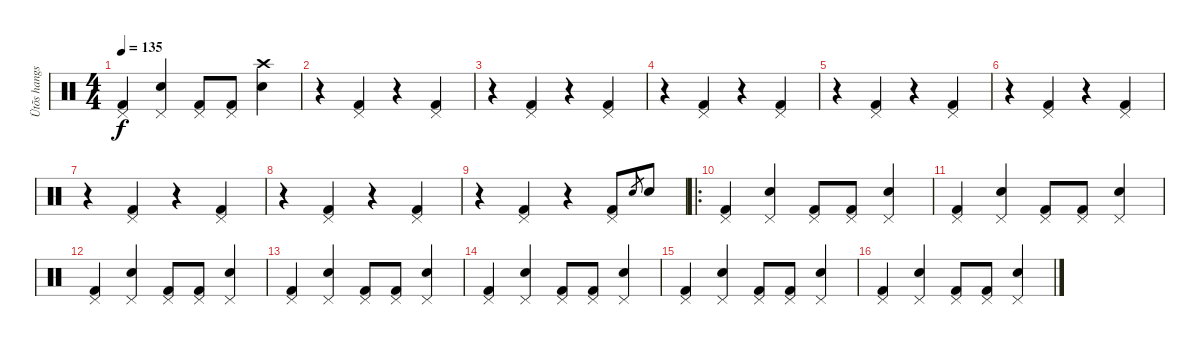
\track ("Ütõs hangszer" "Ütõs hangs") {instrument percussion}
\staff {score}
\articulation defaults
\ts (4 4)
\tempo 135
\clef neutral
\ks c
("Pedal Hi-Hat (hit)" "Kick (hit) 2").4{dy f} ("Pedal Hi-Hat (hit)" "Electric Snare (hit)").4 ("Pedal Hi-Hat (hit)" "Kick (hit) 2").8 ("Pedal Hi-Hat (hit)" "Kick (hit) 2").8 ("Crash high (hit)" "Electric Snare (hit)").4 |
r.4 ("Pedal Hi-Hat (hit)" "Kick (hit) 2").4 r.4 ("Pedal Hi-Hat (hit)" "Kick (hit) 2").4 |
r.4 ("Pedal Hi-Hat (hit)" "Kick (hit) 2").4 r.4 ("Pedal Hi-Hat (hit)" "Kick (hit) 2").4 |
r.4 ("Pedal Hi-Hat (hit)" "Kick (hit) 2").4 r.4 ("Pedal Hi-Hat (hit)" "Kick (hit) 2").4 |
r.4 ("Pedal Hi-Hat (hit)" "Kick (hit) 2").4 r.4 ("Pedal Hi-Hat (hit)" "Kick (hit) 2").4 |
r.4 ("Pedal Hi-Hat (hit)" "Kick (hit) 2").4 r.4 ("Pedal Hi-Hat (hit)" "Kick (hit) 2").4 |
r.4 ("Pedal Hi-Hat (hit)" "Kick (hit) 2").4 r.4 ("Pedal Hi-Hat (hit)" "Kick (hit) 2").4 |
r.4 ("Pedal Hi-Hat (hit)" "Kick (hit) 2").4 r.4 ("Pedal Hi-Hat (hit)" "Kick (hit) 2").4 |
r.4 ("Pedal Hi-Hat (hit)" "Kick (hit) 2").4 r.4 ("Pedal Hi-Hat (hit)" "Kick (hit) 2").8 "Electric Snare (hit)".8{gr} "Electric Snare (hit)".8 |
\ro
("Pedal Hi-Hat (hit)" "Kick (hit) 2").4 ("Pedal Hi-Hat (hit)" "Electric Snare (hit)").4 ("Pedal Hi-Hat (hit)" "Kick (hit) 2").8 ("Pedal Hi-Hat (hit)" "Kick (hit) 2").8 ("Pedal Hi-Hat (hit)" "Electric Snare (hit)").4 |
("Pedal Hi-Hat (hit)" "Kick (hit) 2").4 ("Pedal Hi-Hat (hit)" "Electric Snare (hit)").4 ("Pedal Hi-Hat (hit)" "Kick (hit) 2").8 ("Pedal Hi-Hat (hit)" "Kick (hit) 2").8 ("Pedal Hi-Hat (hit)" "Electric Snare (hit)").4 |
("Pedal Hi-Hat (hit)" "Kick (hit) 2").4 ("Pedal Hi-Hat (hit)" "Electric Snare (hit)").4 ("Pedal Hi-Hat (hit)" "Kick (hit) 2").8 ("Pedal Hi-Hat (hit)" "Kick (hit) 2").8 ("Pedal Hi-Hat (hit)" "Electric Snare (hit)").4 |
("Pedal Hi-Hat (hit)" "Kick (hit) 2").4 ("Pedal Hi-Hat (hit)" "Electric Snare (hit)").4 ("Pedal Hi-Hat (hit)" "Kick (hit) 2").8 ("Pedal Hi-Hat (hit)" "Kick (hit) 2").8 ("Pedal Hi-Hat (hit)" "Electric Snare (hit)").4 |
("Pedal Hi-Hat (hit)" "Kick (hit) 2").4 ("Pedal Hi-Hat (hit)" "Electric Snare (hit)").4 ("Pedal Hi-Hat (hit)" "Kick (hit) 2").8 ("Pedal Hi-Hat (hit)" "Kick (hit) 2").8 ("Pedal Hi-Hat (hit)" "Electric Snare (hit)").4 |
("Pedal Hi-Hat (hit)" "Kick (hit) 2").4 ("Pedal Hi-Hat (hit)" "Electric Snare (hit)").4 ("Pedal Hi-Hat (hit)" "Kick (hit) 2").8 ("Pedal Hi-Hat (hit)" "Kick (hit) 2").8 ("Pedal Hi-Hat (hit)" "Electric Snare (hit)").4 |
("Pedal Hi-Hat (hit)" "Kick (hit) 2").4 ("Pedal Hi-Hat (hit)" "Electric Snare (hit)").4 ("Pedal Hi-Hat (hit)" "Kick (hit) 2").8 ("Pedal Hi-Hat (hit)" "Kick (hit) 2").8 ("Pedal Hi-Hat (hit)" "Electric Snare (hit)").4
